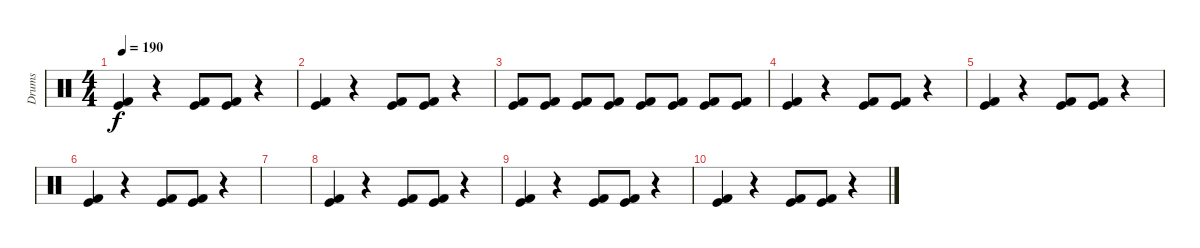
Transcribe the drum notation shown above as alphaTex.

\track ("Drums" "Drums") {instrument percussion}
\staff {score}
\articulation defaults
\ts (4 4)
\tempo 190
\clef neutral
\ks c
("Kick (hit) 2" "Kick (hit)").4{dy f} r.4 ("Kick (hit) 2" "Kick (hit)").8 ("Kick (hit) 2" "Kick (hit)").8 r.4 |
("Kick (hit) 2" "Kick (hit)").4 r.4 ("Kick (hit) 2" "Kick (hit)").8 ("Kick (hit) 2" "Kick (hit)").8 r.4 |
("Kick (hit) 2" "Kick (hit)").8 ("Kick (hit) 2" "Kick (hit)").8 ("Kick (hit) 2" "Kick (hit)").8 ("Kick (hit) 2" "Kick (hit)").8 ("Kick (hit) 2" "Kick (hit)").8 ("Kick (hit) 2" "Kick (hit)").8 ("Kick (hit) 2" "Kick (hit)").8 ("Kick (hit) 2" "Kick (hit)").8 |
("Kick (hit) 2" "Kick (hit)").4 r.4 ("Kick (hit) 2" "Kick (hit)").8 ("Kick (hit) 2" "Kick (hit)").8 r.4 |
("Kick (hit) 2" "Kick (hit)").4 r.4 ("Kick (hit) 2" "Kick (hit)").8 ("Kick (hit) 2" "Kick (hit)").8 r.4 |
("Kick (hit) 2" "Kick (hit)").4 r.4 ("Kick (hit) 2" "Kick (hit)").8 ("Kick (hit) 2" "Kick (hit)").8 r.4 |
|
("Kick (hit) 2" "Kick (hit)").4 r.4 ("Kick (hit) 2" "Kick (hit)").8 ("Kick (hit) 2" "Kick (hit)").8 r.4 |
("Kick (hit) 2" "Kick (hit)").4 r.4 ("Kick (hit) 2" "Kick (hit)").8 ("Kick (hit) 2" "Kick (hit)").8 r.4 |
("Kick (hit) 2" "Kick (hit)").4 r.4 ("Kick (hit) 2" "Kick (hit)").8 ("Kick (hit) 2" "Kick (hit)").8 r.4
